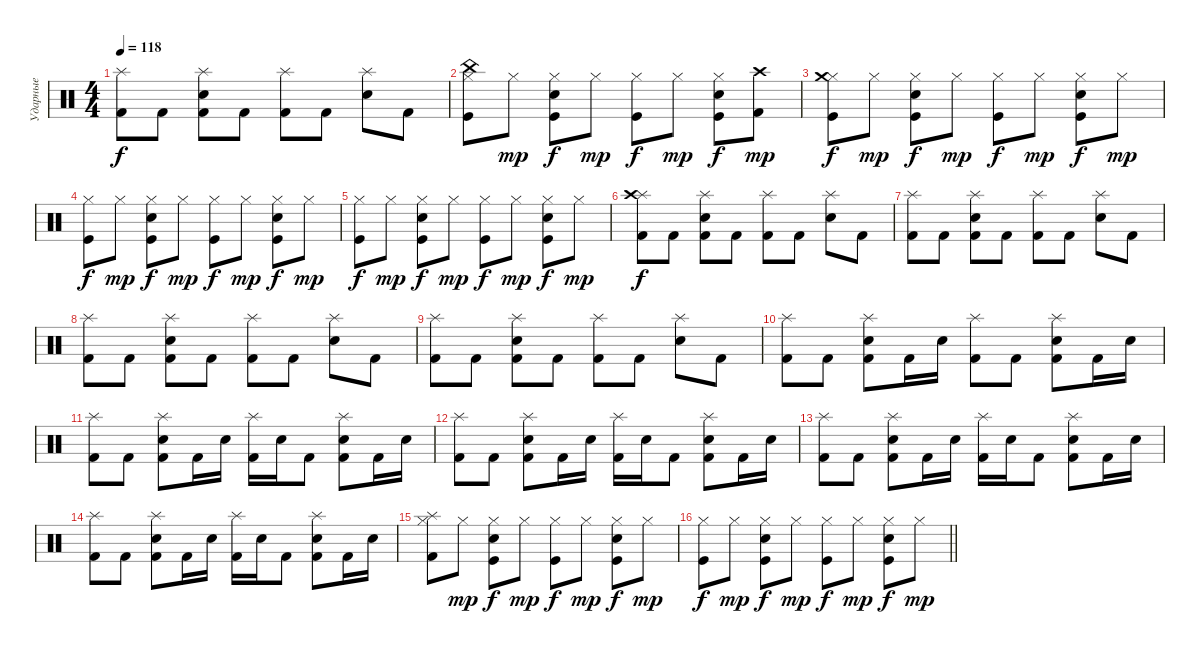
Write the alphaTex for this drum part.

\track ("Ударные" "Ударные") {instrument percussion}
\staff {score}
\articulation defaults
\ts (4 4)
\tempo 118
\clef neutral
\ks c
("Splash (hit)" "Kick (hit) 2").8{dy f} "Kick (hit) 2".8 ("Splash (hit)" "Kick (hit) 2" "Electric Snare (hit)").8 "Kick (hit) 2".8 ("Splash (hit)" "Kick (hit) 2").8 "Kick (hit) 2".8 ("Splash (hit)" "Electric Snare (hit)").8 "Kick (hit) 2".8 |
("Hi-Hat (closed)" "Kick (hit)" "China (hit)").8 "Hi-Hat (closed)".8{dy mp} ("Hi-Hat (closed)" "Kick (hit)" "Electric Snare (hit)").8{dy f} "Hi-Hat (closed)".8{dy mp} ("Hi-Hat (closed)" "Kick (hit)").8{dy f} "Hi-Hat (closed)".8{dy mp} ("Hi-Hat (closed)" "Kick (hit)" "Electric Snare (hit)").8{dy f} ("Kick (hit) 2" "Crash high (hit)").8{dy mp} |
("Hi-Hat (closed)" "Kick (hit)" "Crash medium (hit)").8{dy f} "Hi-Hat (closed)".8{dy mp} ("Hi-Hat (closed)" "Kick (hit)" "Electric Snare (hit)").8{dy f} "Hi-Hat (closed)".8{dy mp} ("Hi-Hat (closed)" "Kick (hit)").8{dy f} "Hi-Hat (closed)".8{dy mp} ("Hi-Hat (closed)" "Kick (hit)" "Electric Snare (hit)").8{dy f} "Hi-Hat (closed)".8{dy mp} |
("Hi-Hat (closed)" "Kick (hit)").8{dy f} "Hi-Hat (closed)".8{dy mp} ("Hi-Hat (closed)" "Kick (hit)" "Electric Snare (hit)").8{dy f} "Hi-Hat (closed)".8{dy mp} ("Hi-Hat (closed)" "Kick (hit)").8{dy f} "Hi-Hat (closed)".8{dy mp} ("Hi-Hat (closed)" "Kick (hit)" "Electric Snare (hit)").8{dy f} "Hi-Hat (closed)".8{dy mp} |
("Hi-Hat (closed)" "Kick (hit)").8{dy f} "Hi-Hat (closed)".8{dy mp} ("Hi-Hat (closed)" "Kick (hit)" "Electric Snare (hit)").8{dy f} "Hi-Hat (closed)".8{dy mp} ("Hi-Hat (closed)" "Kick (hit)").8{dy f} "Hi-Hat (closed)".8{dy mp} ("Hi-Hat (closed)" "Kick (hit)" "Electric Snare (hit)").8{dy f} "Hi-Hat (closed)".8{dy mp} |
("Splash (hit)" "Kick (hit) 2" "Crash high (hit)").8{dy f} "Kick (hit) 2".8 ("Splash (hit)" "Kick (hit) 2" "Electric Snare (hit)").8 "Kick (hit) 2".8 ("Splash (hit)" "Kick (hit) 2").8 "Kick (hit) 2".8 ("Splash (hit)" "Electric Snare (hit)").8 "Kick (hit) 2".8 |
("Splash (hit)" "Kick (hit) 2").8 "Kick (hit) 2".8 ("Splash (hit)" "Kick (hit) 2" "Electric Snare (hit)").8 "Kick (hit) 2".8 ("Splash (hit)" "Kick (hit) 2").8 "Kick (hit) 2".8 ("Splash (hit)" "Electric Snare (hit)").8 "Kick (hit) 2".8 |
("Splash (hit)" "Kick (hit) 2").8 "Kick (hit) 2".8 ("Splash (hit)" "Kick (hit) 2" "Electric Snare (hit)").8 "Kick (hit) 2".8 ("Splash (hit)" "Kick (hit) 2").8 "Kick (hit) 2".8 ("Splash (hit)" "Electric Snare (hit)").8 "Kick (hit) 2".8 |
("Splash (hit)" "Kick (hit) 2").8 "Kick (hit) 2".8 ("Splash (hit)" "Kick (hit) 2" "Electric Snare (hit)").8 "Kick (hit) 2".8 ("Splash (hit)" "Kick (hit) 2").8 "Kick (hit) 2".8 ("Splash (hit)" "Electric Snare (hit)").8 "Kick (hit) 2".8 |
("Splash (hit)" "Kick (hit) 2").8 "Kick (hit) 2".8 ("Splash (hit)" "Kick (hit) 2" "Electric Snare (hit)").8 "Kick (hit) 2".16 "Electric Snare (hit)".16 ("Splash (hit)" "Kick (hit) 2").8 "Kick (hit) 2".8 ("Splash (hit)" "Kick (hit) 2" "Electric Snare (hit)").8 "Kick (hit) 2".16 "Electric Snare (hit)".16 |
("Splash (hit)" "Kick (hit) 2").8 "Kick (hit) 2".8 ("Splash (hit)" "Kick (hit) 2" "Electric Snare (hit)").8 "Kick (hit) 2".16 "Electric Snare (hit)".16 ("Splash (hit)" "Kick (hit) 2").16 "Electric Snare (hit)".16 "Kick (hit) 2".8 ("Splash (hit)" "Kick (hit) 2" "Electric Snare (hit)").8 "Kick (hit) 2".16 "Electric Snare (hit)".16 |
("Splash (hit)" "Kick (hit) 2").8 "Kick (hit) 2".8 ("Splash (hit)" "Kick (hit) 2" "Electric Snare (hit)").8 "Kick (hit) 2".16 "Electric Snare (hit)".16 ("Splash (hit)" "Kick (hit) 2").16 "Electric Snare (hit)".16 "Kick (hit) 2".8 ("Splash (hit)" "Kick (hit) 2" "Electric Snare (hit)").8 "Kick (hit) 2".16 "Electric Snare (hit)".16 |
("Splash (hit)" "Kick (hit) 2").8 "Kick (hit) 2".8 ("Splash (hit)" "Kick (hit) 2" "Electric Snare (hit)").8 "Kick (hit) 2".16 "Electric Snare (hit)".16 ("Splash (hit)" "Kick (hit) 2").16 "Electric Snare (hit)".16 "Kick (hit) 2".8 ("Splash (hit)" "Kick (hit) 2" "Electric Snare (hit)").8 "Kick (hit) 2".16 "Electric Snare (hit)".16 |
("Splash (hit)" "Kick (hit) 2").8 "Kick (hit) 2".8 ("Splash (hit)" "Kick (hit) 2" "Electric Snare (hit)").8 "Kick (hit) 2".16 "Electric Snare (hit)".16 ("Splash (hit)" "Kick (hit) 2").16 "Electric Snare (hit)".16 "Kick (hit) 2".8 ("Splash (hit)" "Kick (hit) 2" "Electric Snare (hit)").8 "Kick (hit) 2".16 "Electric Snare (hit)".16 |
("Hi-Hat (closed)" "Splash (hit)" "Kick (hit) 2").8 "Hi-Hat (closed)".8{dy mp} ("Hi-Hat (closed)" "Kick (hit)" "Electric Snare (hit)").8{dy f} "Hi-Hat (closed)".8{dy mp} ("Hi-Hat (closed)" "Kick (hit)").8{dy f} "Hi-Hat (closed)".8{dy mp} ("Hi-Hat (closed)" "Kick (hit)" "Electric Snare (hit)").8{dy f} "Hi-Hat (closed)".8{dy mp} |
\barLineRight lightlight
("Hi-Hat (closed)" "Kick (hit)").8{dy f} "Hi-Hat (closed)".8{dy mp} ("Hi-Hat (closed)" "Kick (hit)" "Electric Snare (hit)").8{dy f} "Hi-Hat (closed)".8{dy mp} ("Hi-Hat (closed)" "Kick (hit)").8{dy f} "Hi-Hat (closed)".8{dy mp} ("Hi-Hat (closed)" "Kick (hit)" "Electric Snare (hit)").8{dy f} "Hi-Hat (closed)".8{dy mp}
